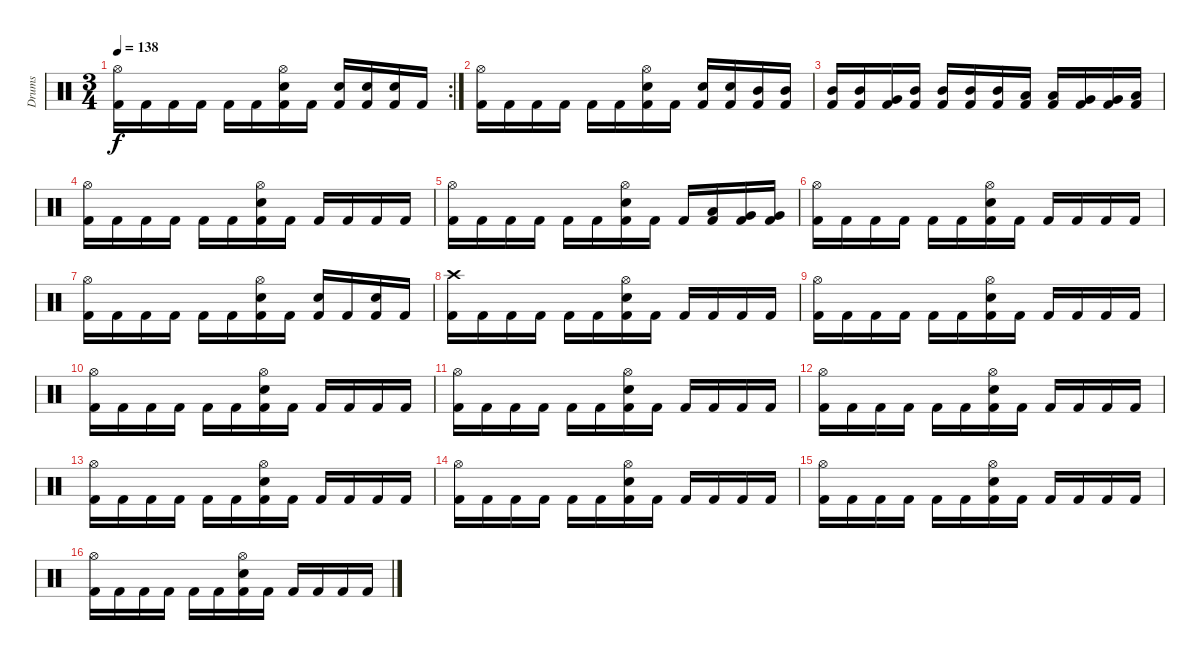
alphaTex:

\track ("Drums" "Drums") {instrument percussion}
\staff {score}
\articulation defaults
\rc 2
\ts (3 4)
\tempo 138
\clef neutral
\ks c
("Hi-Hat (open)" "Kick (hit) 2").16{dy f} "Kick (hit) 2".16 "Kick (hit) 2".16 "Kick (hit) 2".16 "Kick (hit) 2".16 "Kick (hit) 2".16 ("Hi-Hat (open)" "Snare (hit) 2" "Kick (hit) 2").16 "Kick (hit) 2".16 ("Snare (hit) 2" "Kick (hit) 2").16 ("Snare (hit) 2" "Kick (hit) 2").16 ("Snare (hit) 2" "Kick (hit) 2").16 "Kick (hit) 2".16 |
("Hi-Hat (open)" "Kick (hit) 2").16 "Kick (hit) 2".16 "Kick (hit) 2".16 "Kick (hit) 2".16 "Kick (hit) 2".16 "Kick (hit) 2".16 ("Hi-Hat (open)" "Snare (hit) 2" "Kick (hit) 2").16 "Kick (hit) 2".16 ("Snare (hit) 2" "Kick (hit) 2").16 ("Snare (hit) 2" "Kick (hit) 2").16 ("Mid Tom (hit)" "Kick (hit) 2").16 ("Mid Tom (hit)" "Kick (hit) 2").16 |
("Mid Tom (hit)" "Kick (hit) 2").16 ("Mid Tom (hit)" "Kick (hit) 2").16 ("Very Low Tom (hit)" "Kick (hit) 2").16 ("Mid Tom (hit)" "Kick (hit) 2").16 ("Mid Tom (hit)" "Kick (hit) 2").16 ("Mid Tom (hit)" "Kick (hit) 2").16 ("Mid Tom (hit)" "Kick (hit) 2").16 ("Low Tom (hit)" "Kick (hit) 2").16 ("Low Tom (hit)" "Kick (hit) 2").16 ("Very Low Tom (hit)" "Kick (hit) 2").16 ("Very Low Tom (hit)" "Kick (hit) 2").16 ("Low Floor Tom (hit)" "Kick (hit) 2").16 |
("Hi-Hat (open)" "Kick (hit) 2").16 "Kick (hit) 2".16 "Kick (hit) 2".16 "Kick (hit) 2".16 "Kick (hit) 2".16 "Kick (hit) 2".16 ("Hi-Hat (open)" "Snare (hit) 2" "Kick (hit) 2").16 "Kick (hit) 2".16 "Kick (hit) 2".16 "Kick (hit) 2".16 "Kick (hit) 2".16 "Kick (hit) 2".16 |
("Hi-Hat (open)" "Kick (hit) 2").16 "Kick (hit) 2".16 "Kick (hit) 2".16 "Kick (hit) 2".16 "Kick (hit) 2".16 "Kick (hit) 2".16 ("Hi-Hat (open)" "Snare (hit) 2" "Kick (hit) 2").16 "Kick (hit) 2".16 "Kick (hit) 2".16 ("Low Tom (hit)" "Kick (hit) 2").16 ("Very Low Tom (hit)" "Kick (hit) 2").16 ("Very Low Tom (hit)" "Kick (hit) 2").16 |
("Hi-Hat (open)" "Kick (hit) 2").16 "Kick (hit) 2".16 "Kick (hit) 2".16 "Kick (hit) 2".16 "Kick (hit) 2".16 "Kick (hit) 2".16 ("Hi-Hat (open)" "Snare (hit) 2" "Kick (hit) 2").16 "Kick (hit) 2".16 "Kick (hit) 2".16 "Kick (hit) 2".16 "Kick (hit) 2".16 "Kick (hit) 2".16 |
("Hi-Hat (open)" "Kick (hit) 2").16 "Kick (hit) 2".16 "Kick (hit) 2".16 "Kick (hit) 2".16 "Kick (hit) 2".16 "Kick (hit) 2".16 ("Hi-Hat (open)" "Snare (hit) 2" "Kick (hit) 2").16 "Kick (hit) 2".16 ("Snare (hit) 2" "Kick (hit) 2").16 "Kick (hit) 2".16 ("Snare (hit) 2" "Kick (hit) 2").16 "Kick (hit) 2".16 |
("Crash high (hit)" "Kick (hit) 2").16 "Kick (hit) 2".16 "Kick (hit) 2".16 "Kick (hit) 2".16 "Kick (hit) 2".16 "Kick (hit) 2".16 ("Hi-Hat (open)" "Snare (hit) 2" "Kick (hit) 2").16 "Kick (hit) 2".16 "Kick (hit) 2".16 "Kick (hit) 2".16 "Kick (hit) 2".16 "Kick (hit) 2".16 |
("Hi-Hat (open)" "Kick (hit) 2").16 "Kick (hit) 2".16 "Kick (hit) 2".16 "Kick (hit) 2".16 "Kick (hit) 2".16 "Kick (hit) 2".16 ("Hi-Hat (open)" "Snare (hit) 2" "Kick (hit) 2").16 "Kick (hit) 2".16 "Kick (hit) 2".16 "Kick (hit) 2".16 "Kick (hit) 2".16 "Kick (hit) 2".16 |
("Hi-Hat (open)" "Kick (hit) 2").16 "Kick (hit) 2".16 "Kick (hit) 2".16 "Kick (hit) 2".16 "Kick (hit) 2".16 "Kick (hit) 2".16 ("Hi-Hat (open)" "Snare (hit) 2" "Kick (hit) 2").16 "Kick (hit) 2".16 "Kick (hit) 2".16 "Kick (hit) 2".16 "Kick (hit) 2".16 "Kick (hit) 2".16 |
("Hi-Hat (open)" "Kick (hit) 2").16 "Kick (hit) 2".16 "Kick (hit) 2".16 "Kick (hit) 2".16 "Kick (hit) 2".16 "Kick (hit) 2".16 ("Hi-Hat (open)" "Snare (hit) 2" "Kick (hit) 2").16 "Kick (hit) 2".16 "Kick (hit) 2".16 "Kick (hit) 2".16 "Kick (hit) 2".16 "Kick (hit) 2".16 |
("Hi-Hat (open)" "Kick (hit) 2").16 "Kick (hit) 2".16 "Kick (hit) 2".16 "Kick (hit) 2".16 "Kick (hit) 2".16 "Kick (hit) 2".16 ("Hi-Hat (open)" "Snare (hit) 2" "Kick (hit) 2").16 "Kick (hit) 2".16 "Kick (hit) 2".16 "Kick (hit) 2".16 "Kick (hit) 2".16 "Kick (hit) 2".16 |
("Hi-Hat (open)" "Kick (hit) 2").16 "Kick (hit) 2".16 "Kick (hit) 2".16 "Kick (hit) 2".16 "Kick (hit) 2".16 "Kick (hit) 2".16 ("Hi-Hat (open)" "Snare (hit) 2" "Kick (hit) 2").16 "Kick (hit) 2".16 "Kick (hit) 2".16 "Kick (hit) 2".16 "Kick (hit) 2".16 "Kick (hit) 2".16 |
("Hi-Hat (open)" "Kick (hit) 2").16 "Kick (hit) 2".16 "Kick (hit) 2".16 "Kick (hit) 2".16 "Kick (hit) 2".16 "Kick (hit) 2".16 ("Hi-Hat (open)" "Snare (hit) 2" "Kick (hit) 2").16 "Kick (hit) 2".16 "Kick (hit) 2".16 "Kick (hit) 2".16 "Kick (hit) 2".16 "Kick (hit) 2".16 |
("Hi-Hat (open)" "Kick (hit) 2").16 "Kick (hit) 2".16 "Kick (hit) 2".16 "Kick (hit) 2".16 "Kick (hit) 2".16 "Kick (hit) 2".16 ("Hi-Hat (open)" "Snare (hit) 2" "Kick (hit) 2").16 "Kick (hit) 2".16 "Kick (hit) 2".16 "Kick (hit) 2".16 "Kick (hit) 2".16 "Kick (hit) 2".16 |
("Hi-Hat (open)" "Kick (hit) 2").16 "Kick (hit) 2".16 "Kick (hit) 2".16 "Kick (hit) 2".16 "Kick (hit) 2".16 "Kick (hit) 2".16 ("Hi-Hat (open)" "Snare (hit) 2" "Kick (hit) 2").16 "Kick (hit) 2".16 "Kick (hit) 2".16 "Kick (hit) 2".16 "Kick (hit) 2".16 "Kick (hit) 2".16
